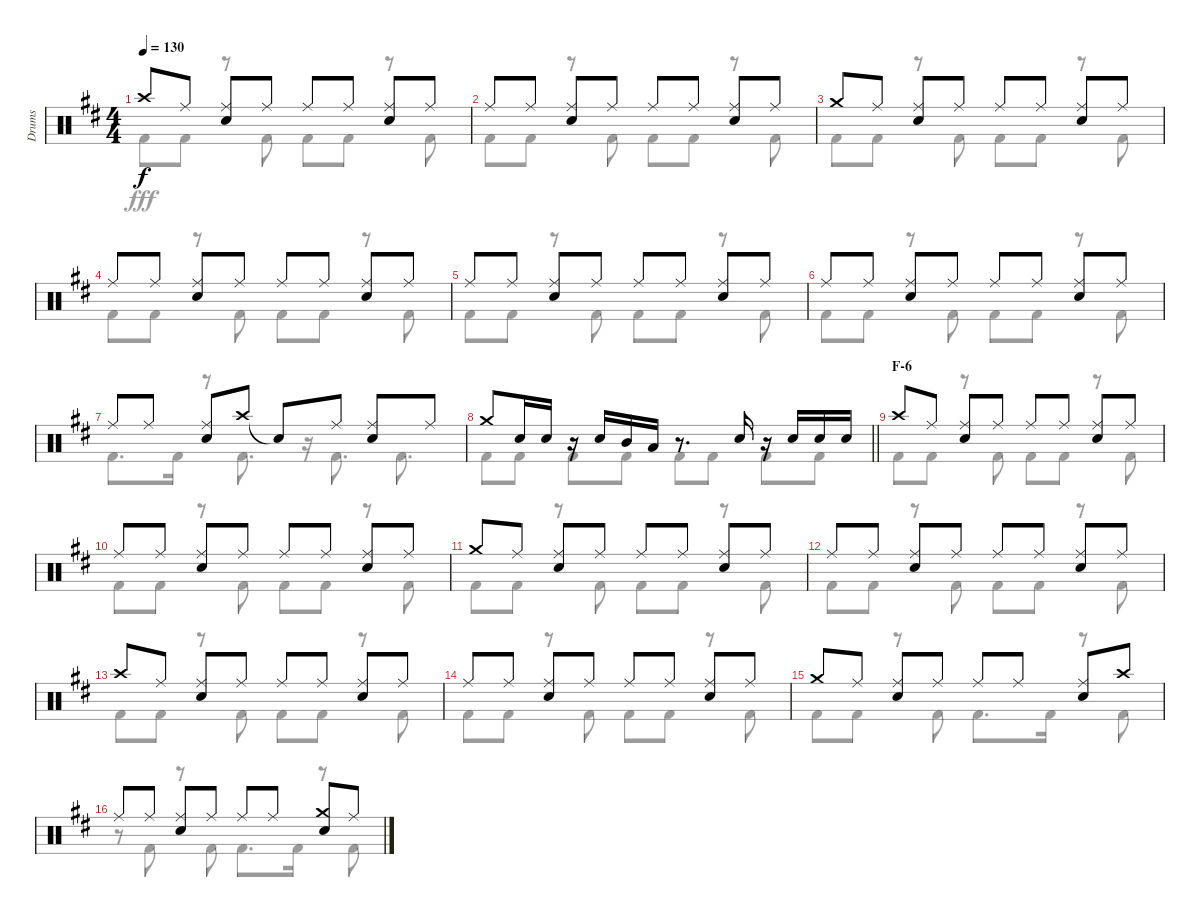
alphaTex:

\track ("Drums" "Drums") {instrument percussion}
\staff {score}
\articulation defaults
\voice
\ts (4 4)
\tempo 130
\clef neutral
\ks d "Crash high (hit)".8{dy f} "Ride (middle)".8
("Ride (middle)" "Snare (hit) 2").8 "Ride (middle)".8 "Ride (middle)".8 "Ride (middle)".8 ("Ride (middle)" "Snare (hit) 2").8 "Ride (middle)".8 |
"Ride (middle)".8 "Ride (middle)".8 ("Ride (middle)" "Snare (hit) 2").8 "Ride (middle)".8 "Ride (middle)".8 "Ride (middle)".8 ("Ride (middle)" "Snare (hit) 2").8 "Ride (middle)".8 |
"Crash medium (hit)".8 "Ride (middle)".8 ("Ride (middle)" "Snare (hit) 2").8 "Ride (middle)".8 "Ride (middle)".8 "Ride (middle)".8 ("Ride (middle)" "Snare (hit) 2").8 "Ride (middle)".8 |
"Ride (middle)".8 "Ride (middle)".8 ("Ride (middle)" "Snare (hit) 2").8 "Ride (middle)".8 "Ride (middle)".8 "Ride (middle)".8 ("Ride (middle)" "Snare (hit) 2").8 "Ride (middle)".8 |
"Ride (middle)".8 "Ride (middle)".8 ("Ride (middle)" "Snare (hit) 2").8 "Ride (middle)".8 "Ride (middle)".8 "Ride (middle)".8 ("Ride (middle)" "Snare (hit) 2").8 "Ride (middle)".8 |
"Ride (middle)".8 "Ride (middle)".8 ("Ride (middle)" "Snare (hit) 2").8 "Ride (middle)".8 "Ride (middle)".8 "Ride (middle)".8 ("Ride (middle)" "Snare (hit) 2").8 "Ride (middle)".8 |
"Ride (middle)".8 "Ride (middle)".8 ("Ride (middle)" "Snare (hit) 2").8 "Crash high (hit)".8 "Snare (hit)"{t}.8 "Ride (middle)".8 ("Ride (middle)" "Snare (hit) 2").8 "Ride (middle)".8 |
\barLineRight lightlight "Crash medium (hit)".8 "Snare (hit) 2".16 "Snare (hit) 2".16
r.16 "Snare (hit) 2".16 "Mid Tom (hit)".16 "Low Tom (hit)".16 r.8{d} "Snare (hit) 2".16 r.16 "Snare (hit) 2".16 "Snare (hit) 2".16 "Snare (hit) 2".16 |
\section ("" "F-6")
"Crash high (hit)".8 "Ride (middle)".8 ("Ride (middle)" "Snare (hit) 2").8 "Ride (middle)".8 "Ride (middle)".8 "Ride (middle)".8 ("Ride (middle)" "Snare (hit) 2").8 "Ride (middle)".8 |
"Ride (middle)".8 "Ride (middle)".8 ("Ride (middle)" "Snare (hit) 2").8 "Ride (middle)".8 "Ride (middle)".8 "Ride (middle)".8 ("Ride (middle)" "Snare (hit) 2").8 "Ride (middle)".8 |
"Crash medium (hit)".8 "Ride (middle)".8 ("Ride (middle)" "Snare (hit) 2").8 "Ride (middle)".8 "Ride (middle)".8 "Ride (middle)".8 ("Ride (middle)" "Snare (hit) 2").8 "Ride (middle)".8 |
"Ride (middle)".8 "Ride (middle)".8 ("Ride (middle)" "Snare (hit) 2").8 "Ride (middle)".8 "Ride (middle)".8 "Ride (middle)".8 ("Ride (middle)" "Snare (hit) 2").8 "Ride (middle)".8 |
"Crash high (hit)".8 "Ride (middle)".8 ("Ride (middle)" "Snare (hit) 2").8 "Ride (middle)".8 "Ride (middle)".8 "Ride (middle)".8 ("Ride (middle)" "Snare (hit) 2").8 "Ride (middle)".8 |
"Ride (middle)".8 "Ride (middle)".8 ("Ride (middle)" "Snare (hit) 2").8 "Ride (middle)".8 "Ride (middle)".8 "Ride (middle)".8 ("Ride (middle)" "Snare (hit) 2").8 "Ride (middle)".8 |
"Crash medium (hit)".8 "Ride (middle)".8 ("Ride (middle)" "Snare (hit) 2").8 "Ride (middle)".8 "Ride (middle)".8 "Ride (middle)".8 ("Ride (middle)" "Snare (hit) 2").8 "Crash high (hit)".8 |
"Ride (middle)".8 "Ride (middle)".8 ("Ride (middle)" "Snare (hit) 2").8 "Ride (middle)".8 "Ride (middle)".8 "Ride (middle)".8 ("Crash medium (hit)" "Snare (hit) 2").8 "Ride (middle)".8
\voice
\clef neutral
\ottava regular
\simile none
\ks d "Kick (hit) 2".8{dy fff} "Kick (hit) 2".8
r.8 "Kick (hit) 2".8 "Kick (hit) 2".8 "Kick (hit) 2".8 r.8 "Kick (hit) 2".8 |
"Kick (hit) 2".8 "Kick (hit) 2".8 r.8 "Kick (hit) 2".8 "Kick (hit) 2".8 "Kick (hit) 2".8 r.8 "Kick (hit) 2".8 |
"Kick (hit) 2".8 "Kick (hit) 2".8 r.8 "Kick (hit) 2".8 "Kick (hit) 2".8 "Kick (hit) 2".8 r.8 "Kick (hit) 2".8 |
"Kick (hit) 2".8 "Kick (hit) 2".8 r.8 "Kick (hit) 2".8 "Kick (hit) 2".8 "Kick (hit) 2".8 r.8 "Kick (hit) 2".8 |
"Kick (hit) 2".8 "Kick (hit) 2".8 r.8 "Kick (hit) 2".8 "Kick (hit) 2".8 "Kick (hit) 2".8 r.8 "Kick (hit) 2".8 |
"Kick (hit) 2".8 "Kick (hit) 2".8 r.8 "Kick (hit) 2".8 "Kick (hit) 2".8 "Kick (hit) 2".8 r.8 "Kick (hit) 2".8 |
"Kick (hit) 2".8{d} "Kick (hit) 2".16 r.8 "Kick (hit) 2".8{d} r.16 "Kick (hit) 2".8{d} "Kick (hit) 2".8{d} |
\barLineRight lightlight "Kick (hit) 2".8 "Kick (hit) 2".8 "Kick (hit) 2".8 "Kick (hit) 2".8 "Kick (hit) 2".8 "Kick (hit) 2".8 "Kick (hit) 2".8 "Kick (hit) 2".8
|
"Kick (hit) 2".8 "Kick (hit) 2".8 r.8 "Kick (hit) 2".8 "Kick (hit) 2".8 "Kick (hit) 2".8 r.8 "Kick (hit) 2".8 |
"Kick (hit) 2".8 "Kick (hit) 2".8 r.8 "Kick (hit) 2".8 "Kick (hit) 2".8 "Kick (hit) 2".8 r.8 "Kick (hit) 2".8 |
"Kick (hit) 2".8 "Kick (hit) 2".8 r.8 "Kick (hit) 2".8 "Kick (hit) 2".8 "Kick (hit) 2".8 r.8 "Kick (hit) 2".8 |
"Kick (hit) 2".8 "Kick (hit) 2".8 r.8 "Kick (hit) 2".8 "Kick (hit) 2".8 "Kick (hit) 2".8 r.8 "Kick (hit) 2".8 |
"Kick (hit) 2".8 "Kick (hit) 2".8 r.8 "Kick (hit) 2".8 "Kick (hit) 2".8 "Kick (hit) 2".8 r.8 "Kick (hit) 2".8 |
"Kick (hit) 2".8 "Kick (hit) 2".8 r.8 "Kick (hit) 2".8 "Kick (hit) 2".8 "Kick (hit) 2".8 r.8 "Kick (hit) 2".8 |
"Kick (hit) 2".8 "Kick (hit) 2".8 r.8 "Kick (hit) 2".8 "Kick (hit) 2".8{d} "Kick (hit) 2".16 r.8 "Kick (hit) 2".8 |
r.8 "Kick (hit) 2".8 r.8 "Kick (hit) 2".8 "Kick (hit) 2".8{d} "Kick (hit) 2".16 r.8 "Kick (hit) 2".8
